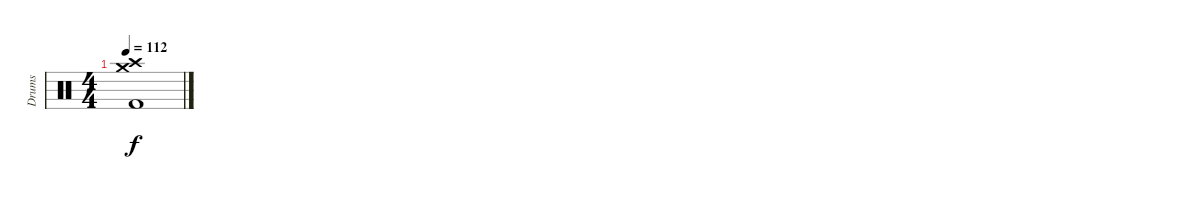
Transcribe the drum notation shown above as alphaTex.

\track ("Drums" "Drums") {instrument percussion}
\staff {score}
\articulation defaults
\ts (4 4)
\tempo 112
\clef neutral
\ks c
("Crash medium (hit)" "Crash high (hit)" "Kick (hit) 2").1{dy f}
